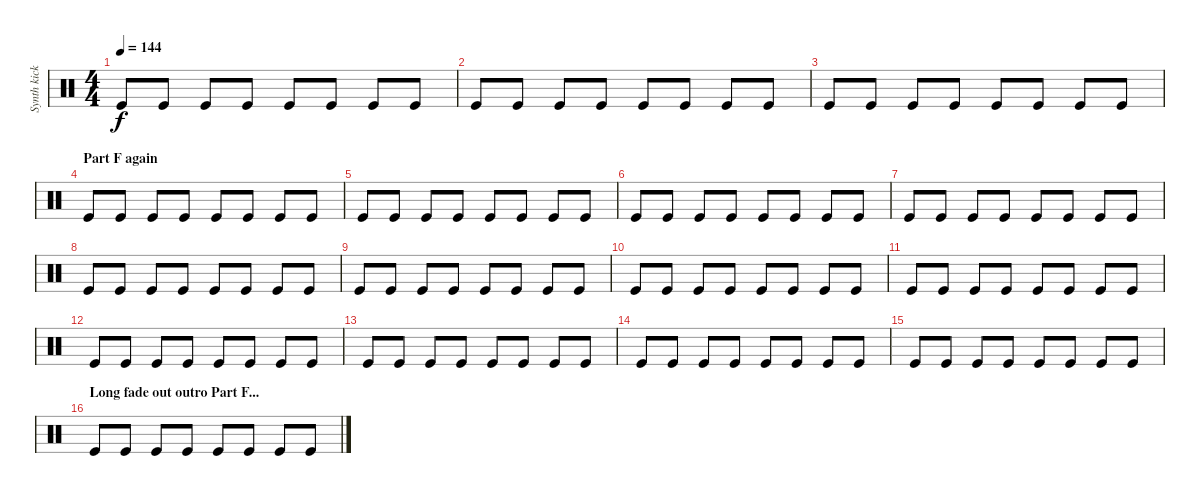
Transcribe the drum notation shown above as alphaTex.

\track ("Synth kick loop" "Synth kick") {instrument percussion}
\staff {score}
\articulation defaults
\ts (4 4)
\tempo 144
\clef neutral
\ks c "Kick (hit)".8{dy f} "Kick (hit)".8 "Kick (hit)".8 "Kick (hit)".8 "Kick (hit)".8 "Kick (hit)".8 "Kick (hit)".8 "Kick (hit)".8
|
"Kick (hit)".8 "Kick (hit)".8 "Kick (hit)".8 "Kick (hit)".8 "Kick (hit)".8 "Kick (hit)".8 "Kick (hit)".8 "Kick (hit)".8 |
"Kick (hit)".8 "Kick (hit)".8 "Kick (hit)".8 "Kick (hit)".8 "Kick (hit)".8 "Kick (hit)".8 "Kick (hit)".8 "Kick (hit)".8 |
\section ("" "Part F again")
"Kick (hit)".8 "Kick (hit)".8 "Kick (hit)".8 "Kick (hit)".8 "Kick (hit)".8 "Kick (hit)".8 "Kick (hit)".8 "Kick (hit)".8 |
"Kick (hit)".8 "Kick (hit)".8 "Kick (hit)".8 "Kick (hit)".8 "Kick (hit)".8 "Kick (hit)".8 "Kick (hit)".8 "Kick (hit)".8 |
"Kick (hit)".8 "Kick (hit)".8 "Kick (hit)".8 "Kick (hit)".8 "Kick (hit)".8 "Kick (hit)".8 "Kick (hit)".8 "Kick (hit)".8 |
"Kick (hit)".8 "Kick (hit)".8 "Kick (hit)".8 "Kick (hit)".8 "Kick (hit)".8 "Kick (hit)".8 "Kick (hit)".8 "Kick (hit)".8 |
"Kick (hit)".8 "Kick (hit)".8 "Kick (hit)".8 "Kick (hit)".8 "Kick (hit)".8 "Kick (hit)".8 "Kick (hit)".8 "Kick (hit)".8 |
"Kick (hit)".8 "Kick (hit)".8 "Kick (hit)".8 "Kick (hit)".8 "Kick (hit)".8 "Kick (hit)".8 "Kick (hit)".8 "Kick (hit)".8 |
"Kick (hit)".8 "Kick (hit)".8 "Kick (hit)".8 "Kick (hit)".8 "Kick (hit)".8 "Kick (hit)".8 "Kick (hit)".8 "Kick (hit)".8 |
"Kick (hit)".8 "Kick (hit)".8 "Kick (hit)".8 "Kick (hit)".8 "Kick (hit)".8 "Kick (hit)".8 "Kick (hit)".8 "Kick (hit)".8 |
"Kick (hit)".8 "Kick (hit)".8 "Kick (hit)".8 "Kick (hit)".8 "Kick (hit)".8 "Kick (hit)".8 "Kick (hit)".8 "Kick (hit)".8 |
"Kick (hit)".8 "Kick (hit)".8 "Kick (hit)".8 "Kick (hit)".8 "Kick (hit)".8 "Kick (hit)".8 "Kick (hit)".8 "Kick (hit)".8 |
"Kick (hit)".8 "Kick (hit)".8 "Kick (hit)".8 "Kick (hit)".8 "Kick (hit)".8 "Kick (hit)".8 "Kick (hit)".8 "Kick (hit)".8 |
"Kick (hit)".8 "Kick (hit)".8 "Kick (hit)".8 "Kick (hit)".8 "Kick (hit)".8 "Kick (hit)".8 "Kick (hit)".8 "Kick (hit)".8 |
\section ("" "Long fade out outro Part F...")
"Kick (hit)".8 "Kick (hit)".8 "Kick (hit)".8 "Kick (hit)".8 "Kick (hit)".8 "Kick (hit)".8 "Kick (hit)".8 "Kick (hit)".8
